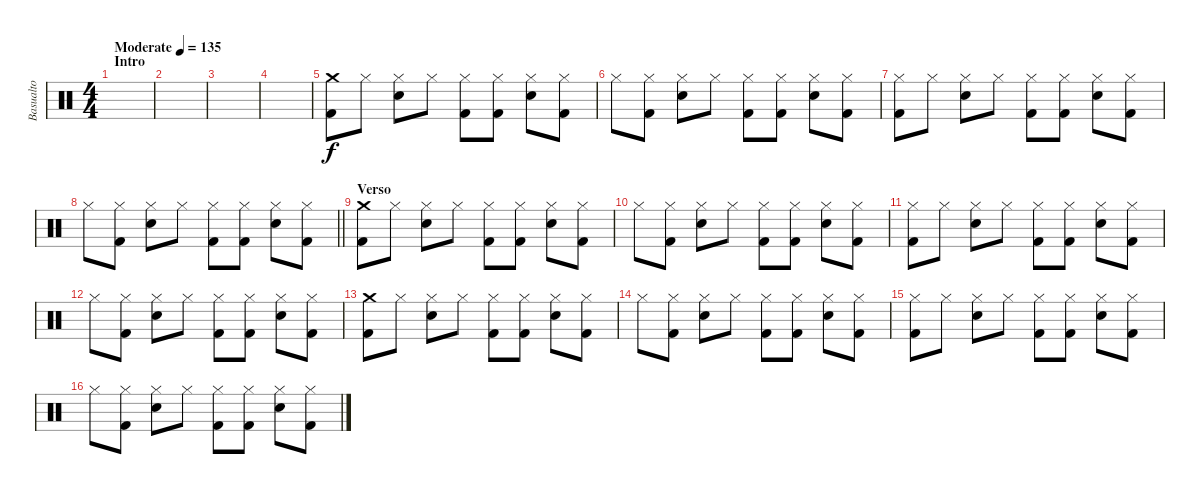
\track ("Basualto" "Basualto") {instrument percussion}
\staff {score}
\articulation defaults
\ts (4 4)
\section ("" "Intro")
\tempo (135 "Moderate")
\clef neutral
\ks c
|
|
|
|
("Crash medium (hit)" "Kick (hit) 2").8 "Hi-Hat (closed)".8 ("Hi-Hat (closed)" "Snare (hit) 2").8 "Hi-Hat (closed)".8 ("Hi-Hat (closed)" "Kick (hit) 2").8 ("Hi-Hat (closed)" "Kick (hit) 2").8 ("Hi-Hat (closed)" "Snare (hit) 2").8 ("Hi-Hat (closed)" "Kick (hit) 2").8 |
"Hi-Hat (closed)".8 ("Hi-Hat (closed)" "Kick (hit) 2").8 ("Hi-Hat (closed)" "Snare (hit) 2").8 "Hi-Hat (closed)".8 ("Hi-Hat (closed)" "Kick (hit) 2").8 ("Hi-Hat (closed)" "Kick (hit) 2").8 ("Hi-Hat (closed)" "Snare (hit) 2").8 ("Hi-Hat (closed)" "Kick (hit) 2").8 |
("Hi-Hat (closed)" "Kick (hit) 2").8 "Hi-Hat (closed)".8 ("Hi-Hat (closed)" "Snare (hit) 2").8 "Hi-Hat (closed)".8 ("Hi-Hat (closed)" "Kick (hit) 2").8 ("Hi-Hat (closed)" "Kick (hit) 2").8 ("Hi-Hat (closed)" "Snare (hit) 2").8 ("Hi-Hat (closed)" "Kick (hit) 2").8 |
\barLineRight lightlight "Hi-Hat (closed)".8
("Hi-Hat (closed)" "Kick (hit) 2").8 ("Hi-Hat (closed)" "Snare (hit) 2").8 "Hi-Hat (closed)".8 ("Hi-Hat (closed)" "Kick (hit) 2").8 ("Hi-Hat (closed)" "Kick (hit) 2").8 ("Hi-Hat (closed)" "Snare (hit) 2").8 ("Hi-Hat (closed)" "Kick (hit) 2").8 |
\section ("" "Verso")
("Crash medium (hit)" "Kick (hit) 2").8 "Hi-Hat (closed)".8 ("Hi-Hat (closed)" "Snare (hit) 2").8 "Hi-Hat (closed)".8 ("Hi-Hat (closed)" "Kick (hit) 2").8 ("Hi-Hat (closed)" "Kick (hit) 2").8 ("Hi-Hat (closed)" "Snare (hit) 2").8 ("Hi-Hat (closed)" "Kick (hit) 2").8 |
"Hi-Hat (closed)".8 ("Hi-Hat (closed)" "Kick (hit) 2").8 ("Hi-Hat (closed)" "Snare (hit) 2").8 "Hi-Hat (closed)".8 ("Hi-Hat (closed)" "Kick (hit) 2").8 ("Hi-Hat (closed)" "Kick (hit) 2").8 ("Hi-Hat (closed)" "Snare (hit) 2").8 ("Hi-Hat (closed)" "Kick (hit) 2").8 |
("Hi-Hat (closed)" "Kick (hit) 2").8 "Hi-Hat (closed)".8 ("Hi-Hat (closed)" "Snare (hit) 2").8 "Hi-Hat (closed)".8 ("Hi-Hat (closed)" "Kick (hit) 2").8 ("Hi-Hat (closed)" "Kick (hit) 2").8 ("Hi-Hat (closed)" "Snare (hit) 2").8 ("Hi-Hat (closed)" "Kick (hit) 2").8 |
"Hi-Hat (closed)".8 ("Hi-Hat (closed)" "Kick (hit) 2").8 ("Hi-Hat (closed)" "Snare (hit) 2").8 "Hi-Hat (closed)".8 ("Hi-Hat (closed)" "Kick (hit) 2").8 ("Hi-Hat (closed)" "Kick (hit) 2").8 ("Hi-Hat (closed)" "Snare (hit) 2").8 ("Hi-Hat (closed)" "Kick (hit) 2").8 |
("Crash medium (hit)" "Kick (hit) 2").8 "Hi-Hat (closed)".8 ("Hi-Hat (closed)" "Snare (hit) 2").8 "Hi-Hat (closed)".8 ("Hi-Hat (closed)" "Kick (hit) 2").8 ("Hi-Hat (closed)" "Kick (hit) 2").8 ("Hi-Hat (closed)" "Snare (hit) 2").8 ("Hi-Hat (closed)" "Kick (hit) 2").8 |
"Hi-Hat (closed)".8 ("Hi-Hat (closed)" "Kick (hit) 2").8 ("Hi-Hat (closed)" "Snare (hit) 2").8 "Hi-Hat (closed)".8 ("Hi-Hat (closed)" "Kick (hit) 2").8 ("Hi-Hat (closed)" "Kick (hit) 2").8 ("Hi-Hat (closed)" "Snare (hit) 2").8 ("Hi-Hat (closed)" "Kick (hit) 2").8 |
("Hi-Hat (closed)" "Kick (hit) 2").8 "Hi-Hat (closed)".8 ("Hi-Hat (closed)" "Snare (hit) 2").8 "Hi-Hat (closed)".8 ("Hi-Hat (closed)" "Kick (hit) 2").8 ("Hi-Hat (closed)" "Kick (hit) 2").8 ("Hi-Hat (closed)" "Snare (hit) 2").8 ("Hi-Hat (closed)" "Kick (hit) 2").8 |
"Hi-Hat (closed)".8 ("Hi-Hat (closed)" "Kick (hit) 2").8 ("Hi-Hat (closed)" "Snare (hit) 2").8 "Hi-Hat (closed)".8 ("Hi-Hat (closed)" "Kick (hit) 2").8 ("Hi-Hat (closed)" "Kick (hit) 2").8 ("Hi-Hat (closed)" "Snare (hit) 2").8 ("Hi-Hat (closed)" "Kick (hit) 2").8
